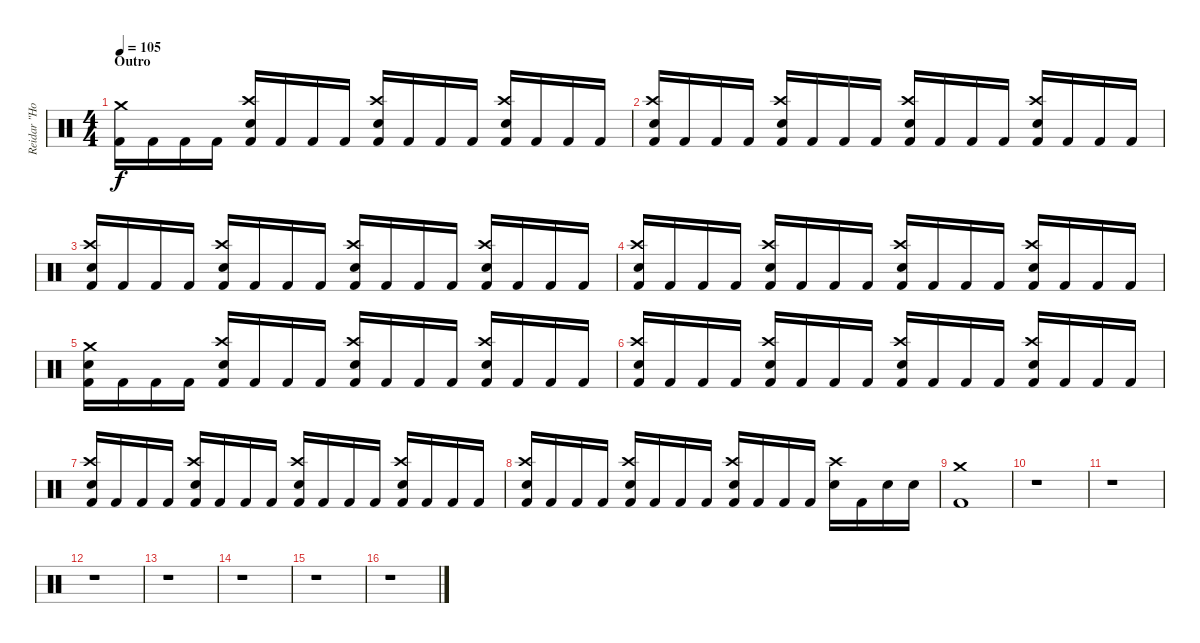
\track ("Reidar \"Horgh\" Horghagen " "Reidar \"Ho") {instrument percussion}
\staff {score}
\articulation defaults
\ts (4 4)
\section ("" "Outro")
\tempo 105
\clef neutral
\ks c
("Crash medium (hit)" "Kick (hit) 2").16{dy f} "Kick (hit) 2".16 "Kick (hit) 2".16 "Kick (hit) 2".16 ("Crash high (hit)" "Snare (hit) 2" "Kick (hit) 2").16 "Kick (hit) 2".16 "Kick (hit) 2".16 "Kick (hit) 2".16 ("Crash high (hit)" "Snare (hit) 2" "Kick (hit) 2").16 "Kick (hit) 2".16 "Kick (hit) 2".16 "Kick (hit) 2".16 ("Crash high (hit)" "Snare (hit) 2" "Kick (hit) 2").16 "Kick (hit) 2".16 "Kick (hit) 2".16 "Kick (hit) 2".16 |
("Crash high (hit)" "Snare (hit) 2" "Kick (hit) 2").16 "Kick (hit) 2".16 "Kick (hit) 2".16 "Kick (hit) 2".16 ("Crash high (hit)" "Snare (hit) 2" "Kick (hit) 2").16 "Kick (hit) 2".16 "Kick (hit) 2".16 "Kick (hit) 2".16 ("Crash high (hit)" "Snare (hit) 2" "Kick (hit) 2").16 "Kick (hit) 2".16 "Kick (hit) 2".16 "Kick (hit) 2".16 ("Crash high (hit)" "Snare (hit) 2" "Kick (hit) 2").16 "Kick (hit) 2".16 "Kick (hit) 2".16 "Kick (hit) 2".16 |
("Crash high (hit)" "Snare (hit) 2" "Kick (hit) 2").16 "Kick (hit) 2".16 "Kick (hit) 2".16 "Kick (hit) 2".16 ("Crash high (hit)" "Snare (hit) 2" "Kick (hit) 2").16 "Kick (hit) 2".16 "Kick (hit) 2".16 "Kick (hit) 2".16 ("Crash high (hit)" "Snare (hit) 2" "Kick (hit) 2").16 "Kick (hit) 2".16 "Kick (hit) 2".16 "Kick (hit) 2".16 ("Crash high (hit)" "Snare (hit) 2" "Kick (hit) 2").16 "Kick (hit) 2".16 "Kick (hit) 2".16 "Kick (hit) 2".16 |
("Crash high (hit)" "Snare (hit) 2" "Kick (hit) 2").16 "Kick (hit) 2".16 "Kick (hit) 2".16 "Kick (hit) 2".16 ("Crash high (hit)" "Snare (hit) 2" "Kick (hit) 2").16 "Kick (hit) 2".16 "Kick (hit) 2".16 "Kick (hit) 2".16 ("Crash high (hit)" "Snare (hit) 2" "Kick (hit) 2").16 "Kick (hit) 2".16 "Kick (hit) 2".16 "Kick (hit) 2".16 ("Crash high (hit)" "Snare (hit) 2" "Kick (hit) 2").16 "Kick (hit) 2".16 "Kick (hit) 2".16 "Kick (hit) 2".16 |
("Crash medium (hit)" "Snare (hit) 2" "Kick (hit) 2").16 "Kick (hit) 2".16 "Kick (hit) 2".16 "Kick (hit) 2".16 ("Crash high (hit)" "Snare (hit) 2" "Kick (hit) 2").16 "Kick (hit) 2".16 "Kick (hit) 2".16 "Kick (hit) 2".16 ("Crash high (hit)" "Snare (hit) 2" "Kick (hit) 2").16 "Kick (hit) 2".16 "Kick (hit) 2".16 "Kick (hit) 2".16 ("Crash high (hit)" "Snare (hit) 2" "Kick (hit) 2").16 "Kick (hit) 2".16 "Kick (hit) 2".16 "Kick (hit) 2".16 |
("Crash high (hit)" "Snare (hit) 2" "Kick (hit) 2").16 "Kick (hit) 2".16 "Kick (hit) 2".16 "Kick (hit) 2".16 ("Crash high (hit)" "Snare (hit) 2" "Kick (hit) 2").16 "Kick (hit) 2".16 "Kick (hit) 2".16 "Kick (hit) 2".16 ("Crash high (hit)" "Snare (hit) 2" "Kick (hit) 2").16 "Kick (hit) 2".16 "Kick (hit) 2".16 "Kick (hit) 2".16 ("Crash high (hit)" "Snare (hit) 2" "Kick (hit) 2").16 "Kick (hit) 2".16 "Kick (hit) 2".16 "Kick (hit) 2".16 |
("Crash high (hit)" "Snare (hit) 2" "Kick (hit) 2").16 "Kick (hit) 2".16 "Kick (hit) 2".16 "Kick (hit) 2".16 ("Crash high (hit)" "Snare (hit) 2" "Kick (hit) 2").16 "Kick (hit) 2".16 "Kick (hit) 2".16 "Kick (hit) 2".16 ("Crash high (hit)" "Snare (hit) 2" "Kick (hit) 2").16 "Kick (hit) 2".16 "Kick (hit) 2".16 "Kick (hit) 2".16 ("Crash high (hit)" "Snare (hit) 2" "Kick (hit) 2").16 "Kick (hit) 2".16 "Kick (hit) 2".16 "Kick (hit) 2".16 |
("Crash high (hit)" "Snare (hit) 2" "Kick (hit) 2").16 "Kick (hit) 2".16 "Kick (hit) 2".16 "Kick (hit) 2".16 ("Crash high (hit)" "Snare (hit) 2" "Kick (hit) 2").16 "Kick (hit) 2".16 "Kick (hit) 2".16 "Kick (hit) 2".16 ("Crash high (hit)" "Snare (hit) 2" "Kick (hit) 2").16 "Kick (hit) 2".16 "Kick (hit) 2".16 "Kick (hit) 2".16 ("Crash high (hit)" "Snare (hit) 2").16 "Kick (hit) 2".16 "Snare (hit) 2".16 "Snare (hit) 2".16 |
("Crash medium (hit)" "Kick (hit) 2").1 |
r.1 |
r.1 |
r.1 |
r.1 |
r.1 |
r.1 |
r.1
